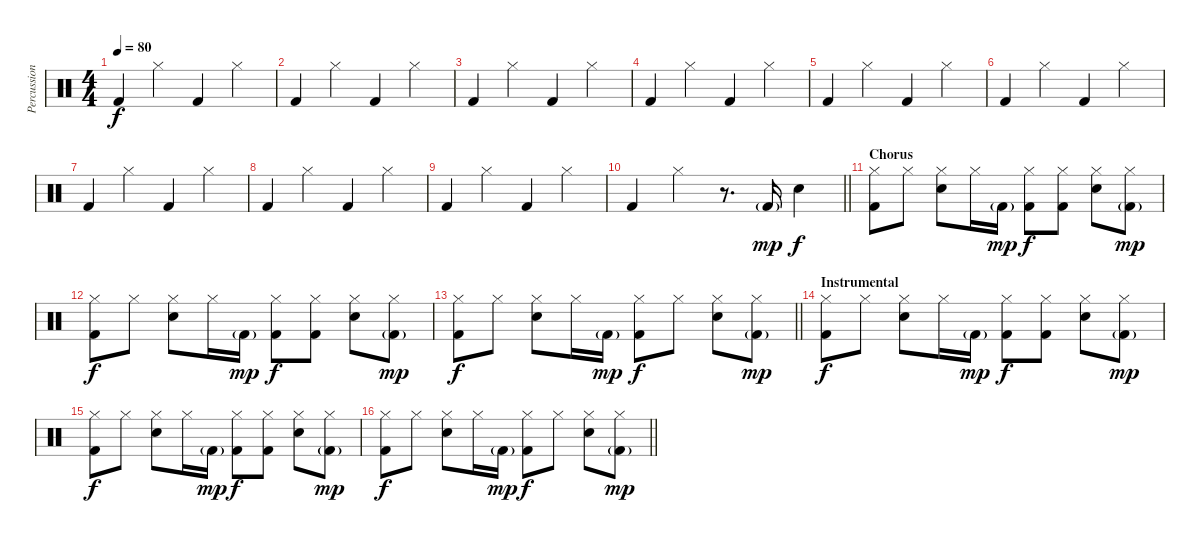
\track ("Percussion" "Percussion") {instrument percussion}
\staff {score}
\articulation defaults
\ts (4 4)
\tempo 80
\clef neutral
\ks c "Kick (hit) 2".4{dy f} "Hi-Hat (closed)".4 "Kick (hit) 2".4 "Hi-Hat (closed)".4
|
"Kick (hit) 2".4 "Hi-Hat (closed)".4 "Kick (hit) 2".4 "Hi-Hat (closed)".4 |
"Kick (hit) 2".4 "Hi-Hat (closed)".4 "Kick (hit) 2".4 "Hi-Hat (closed)".4 |
"Kick (hit) 2".4 "Hi-Hat (closed)".4 "Kick (hit) 2".4 "Hi-Hat (closed)".4 |
"Kick (hit) 2".4 "Hi-Hat (closed)".4 "Kick (hit) 2".4 "Hi-Hat (closed)".4 |
"Kick (hit) 2".4 "Hi-Hat (closed)".4 "Kick (hit) 2".4 "Hi-Hat (closed)".4 |
"Kick (hit) 2".4 "Hi-Hat (closed)".4 "Kick (hit) 2".4 "Hi-Hat (closed)".4 |
"Kick (hit) 2".4 "Hi-Hat (closed)".4 "Kick (hit) 2".4 "Hi-Hat (closed)".4 |
"Kick (hit) 2".4 "Hi-Hat (closed)".4 "Kick (hit) 2".4 "Hi-Hat (closed)".4 |
\barLineRight lightlight "Kick (hit) 2".4 "Hi-Hat (closed)".4
r.8{d} "Kick (hit) 2"{g}.16{dy mp} "Snare (hit) 2".4{dy f} |
\section ("" "Chorus")
("Hi-Hat (closed)" "Kick (hit) 2").8 "Hi-Hat (closed)".8 ("Hi-Hat (closed)" "Snare (hit) 2").8 "Hi-Hat (closed)".16 "Kick (hit) 2"{g}.16{dy mp} ("Hi-Hat (closed)" "Kick (hit) 2").8{dy f} ("Hi-Hat (closed)" "Kick (hit) 2").8 ("Hi-Hat (closed)" "Snare (hit) 2").8 ("Hi-Hat (closed)" "Kick (hit) 2"{g}).8{dy mp} |
("Hi-Hat (closed)" "Kick (hit) 2").8{dy f} "Hi-Hat (closed)".8 ("Hi-Hat (closed)" "Snare (hit) 2").8 "Hi-Hat (closed)".16 "Kick (hit) 2"{g}.16{dy mp} ("Hi-Hat (closed)" "Kick (hit) 2").8{dy f} ("Hi-Hat (closed)" "Kick (hit) 2").8 ("Hi-Hat (closed)" "Snare (hit) 2").8 ("Hi-Hat (closed)" "Kick (hit) 2"{g}).8{dy mp} |
\barLineRight lightlight
("Hi-Hat (closed)" "Kick (hit) 2").8{dy f} "Hi-Hat (closed)".8 ("Hi-Hat (closed)" "Snare (hit) 2").8 "Hi-Hat (closed)".16 "Kick (hit) 2"{g}.16{dy mp} ("Hi-Hat (closed)" "Kick (hit) 2").8{dy f} "Hi-Hat (closed)".8 ("Hi-Hat (closed)" "Snare (hit) 2").8 ("Hi-Hat (closed)" "Kick (hit) 2"{g}).8{dy mp} |
\section ("" "Instrumental")
("Hi-Hat (closed)" "Kick (hit) 2").8{dy f} "Hi-Hat (closed)".8 ("Hi-Hat (closed)" "Snare (hit) 2").8 "Hi-Hat (closed)".16 "Kick (hit) 2"{g}.16{dy mp} ("Hi-Hat (closed)" "Kick (hit) 2").8{dy f} ("Hi-Hat (closed)" "Kick (hit) 2").8 ("Hi-Hat (closed)" "Snare (hit) 2").8 ("Hi-Hat (closed)" "Kick (hit) 2"{g}).8{dy mp} |
("Hi-Hat (closed)" "Kick (hit) 2").8{dy f} "Hi-Hat (closed)".8 ("Hi-Hat (closed)" "Snare (hit) 2").8 "Hi-Hat (closed)".16 "Kick (hit) 2"{g}.16{dy mp} ("Hi-Hat (closed)" "Kick (hit) 2").8{dy f} ("Hi-Hat (closed)" "Kick (hit) 2").8 ("Hi-Hat (closed)" "Snare (hit) 2").8 ("Hi-Hat (closed)" "Kick (hit) 2"{g}).8{dy mp} |
\barLineRight lightlight
("Hi-Hat (closed)" "Kick (hit) 2").8{dy f} "Hi-Hat (closed)".8 ("Hi-Hat (closed)" "Snare (hit) 2").8 "Hi-Hat (closed)".16 "Kick (hit) 2"{g}.16{dy mp} ("Hi-Hat (closed)" "Kick (hit) 2").8{dy f} "Hi-Hat (closed)".8 ("Hi-Hat (closed)" "Snare (hit) 2").8 ("Hi-Hat (closed)" "Kick (hit) 2"{g}).8{dy mp}
